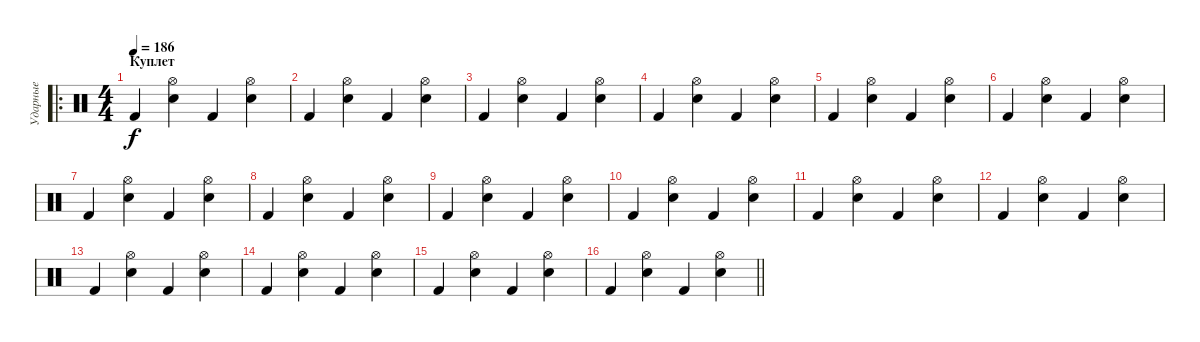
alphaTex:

\track ("Ударные" "Ударные") {instrument percussion}
\staff {score}
\articulation defaults
\ro
\ts (4 4)
\section ("" "Куплет")
\tempo 186
\clef neutral
\ks c "Kick (hit) 2".4{dy f}
("Hi-Hat (open)" "Snare (hit) 2").4 "Kick (hit) 2".4 ("Hi-Hat (open)" "Snare (hit) 2").4 |
"Kick (hit) 2".4 ("Hi-Hat (open)" "Snare (hit) 2").4 "Kick (hit) 2".4 ("Hi-Hat (open)" "Snare (hit) 2").4 |
\ks aminor "Kick (hit) 2".4
("Hi-Hat (open)" "Snare (hit) 2").4 "Kick (hit) 2".4 ("Hi-Hat (open)" "Snare (hit) 2").4 |
"Kick (hit) 2".4 ("Hi-Hat (open)" "Snare (hit) 2").4 "Kick (hit) 2".4 ("Hi-Hat (open)" "Snare (hit) 2").4 |
"Kick (hit) 2".4 ("Hi-Hat (open)" "Snare (hit) 2").4 "Kick (hit) 2".4 ("Hi-Hat (open)" "Snare (hit) 2").4 |
"Kick (hit) 2".4 ("Hi-Hat (open)" "Snare (hit) 2").4 "Kick (hit) 2".4 ("Hi-Hat (open)" "Snare (hit) 2").4 |
"Kick (hit) 2".4 ("Hi-Hat (open)" "Snare (hit) 2").4 "Kick (hit) 2".4 ("Hi-Hat (open)" "Snare (hit) 2").4 |
"Kick (hit) 2".4 ("Hi-Hat (open)" "Snare (hit) 2").4 "Kick (hit) 2".4 ("Hi-Hat (open)" "Snare (hit) 2").4 |
"Kick (hit) 2".4 ("Hi-Hat (open)" "Snare (hit) 2").4 "Kick (hit) 2".4 ("Hi-Hat (open)" "Snare (hit) 2").4 |
"Kick (hit) 2".4 ("Hi-Hat (open)" "Snare (hit) 2").4 "Kick (hit) 2".4 ("Hi-Hat (open)" "Snare (hit) 2").4 |
"Kick (hit) 2".4 ("Hi-Hat (open)" "Snare (hit) 2").4 "Kick (hit) 2".4 ("Hi-Hat (open)" "Snare (hit) 2").4 |
"Kick (hit) 2".4 ("Hi-Hat (open)" "Snare (hit) 2").4 "Kick (hit) 2".4 ("Hi-Hat (open)" "Snare (hit) 2").4 |
"Kick (hit) 2".4 ("Hi-Hat (open)" "Snare (hit) 2").4 "Kick (hit) 2".4 ("Hi-Hat (open)" "Snare (hit) 2").4 |
"Kick (hit) 2".4 ("Hi-Hat (open)" "Snare (hit) 2").4 "Kick (hit) 2".4 ("Hi-Hat (open)" "Snare (hit) 2").4 |
"Kick (hit) 2".4 ("Hi-Hat (open)" "Snare (hit) 2").4 "Kick (hit) 2".4 ("Hi-Hat (open)" "Snare (hit) 2").4 |
\barLineRight lightlight "Kick (hit) 2".4
("Hi-Hat (open)" "Snare (hit) 2").4 "Kick (hit) 2".4 ("Hi-Hat (open)" "Snare (hit) 2").4
